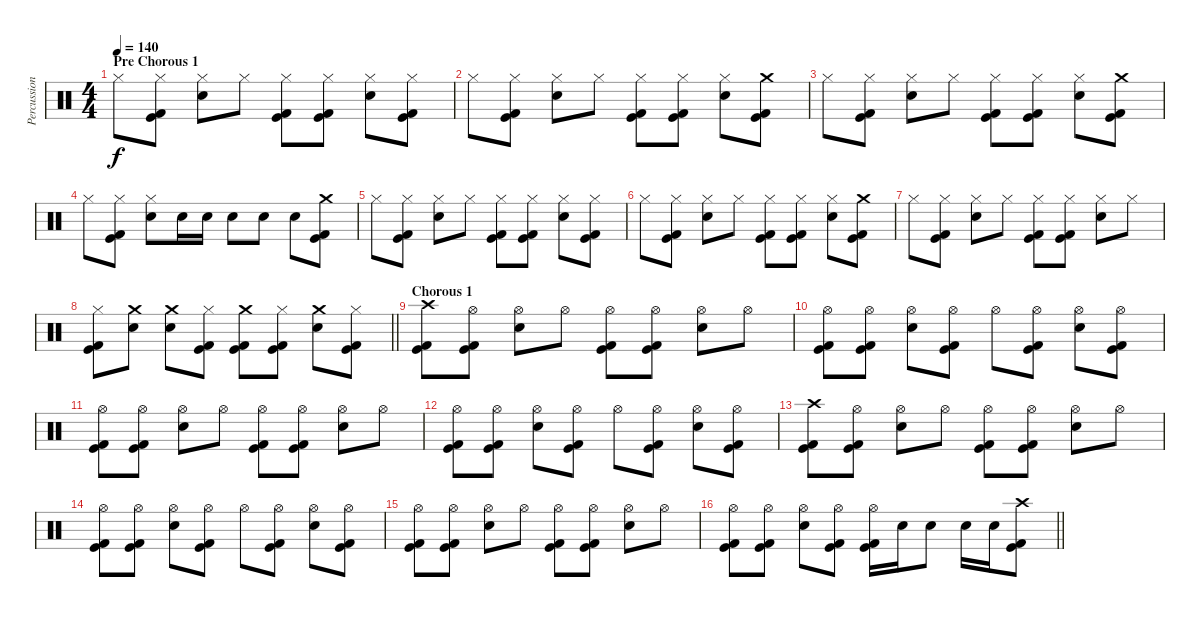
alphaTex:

\track ("Percussion" "Percussion") {instrument percussion}
\staff {score}
\articulation defaults
\ts (4 4)
\section ("" "Pre Chorous 1")
\tempo 140
\clef neutral
\ks c "Hi-Hat (closed)".8{dy f}
("Hi-Hat (closed)" "Kick (hit)" "Kick (hit) 2").8 ("Hi-Hat (closed)" "Electric Snare (hit)").8 "Hi-Hat (closed)".8 ("Hi-Hat (closed)" "Kick (hit)" "Kick (hit) 2").8 ("Hi-Hat (closed)" "Kick (hit)" "Kick (hit) 2").8 ("Hi-Hat (closed)" "Electric Snare (hit)").8 ("Hi-Hat (closed)" "Kick (hit)" "Kick (hit) 2").8 |
"Hi-Hat (closed)".8 ("Hi-Hat (closed)" "Kick (hit)" "Kick (hit) 2").8 ("Hi-Hat (closed)" "Electric Snare (hit)").8 "Hi-Hat (closed)".8 ("Hi-Hat (closed)" "Kick (hit)" "Kick (hit) 2").8 ("Hi-Hat (closed)" "Kick (hit)" "Kick (hit) 2").8 ("Hi-Hat (closed)" "Electric Snare (hit)").8 ("Crash medium (hit)" "Kick (hit)" "Kick (hit) 2").8 |
"Hi-Hat (closed)".8 ("Hi-Hat (closed)" "Kick (hit)" "Kick (hit) 2").8 ("Hi-Hat (closed)" "Electric Snare (hit)").8 "Hi-Hat (closed)".8 ("Hi-Hat (closed)" "Kick (hit)" "Kick (hit) 2").8 ("Hi-Hat (closed)" "Kick (hit)" "Kick (hit) 2").8 ("Hi-Hat (closed)" "Electric Snare (hit)").8 ("Crash medium (hit)" "Kick (hit)" "Kick (hit) 2").8 |
"Hi-Hat (closed)".8 ("Hi-Hat (closed)" "Kick (hit)" "Kick (hit) 2").8 ("Hi-Hat (closed)" "Electric Snare (hit)").8 "Electric Snare (hit)".16 "Electric Snare (hit)".16 "Electric Snare (hit)".8 "Electric Snare (hit)".8 "Electric Snare (hit)".8 ("Crash medium (hit)" "Kick (hit)" "Kick (hit) 2").8 |
"Hi-Hat (closed)".8 ("Hi-Hat (closed)" "Kick (hit)" "Kick (hit) 2").8 ("Hi-Hat (closed)" "Electric Snare (hit)").8 "Hi-Hat (closed)".8 ("Hi-Hat (closed)" "Kick (hit)" "Kick (hit) 2").8 ("Hi-Hat (closed)" "Kick (hit)" "Kick (hit) 2").8 ("Hi-Hat (closed)" "Electric Snare (hit)").8 ("Hi-Hat (closed)" "Kick (hit)" "Kick (hit) 2").8 |
"Hi-Hat (closed)".8 ("Hi-Hat (closed)" "Kick (hit)" "Kick (hit) 2").8 ("Hi-Hat (closed)" "Electric Snare (hit)").8 "Hi-Hat (closed)".8 ("Hi-Hat (closed)" "Kick (hit)" "Kick (hit) 2").8 ("Hi-Hat (closed)" "Kick (hit)" "Kick (hit) 2").8 ("Hi-Hat (closed)" "Electric Snare (hit)").8 ("Crash medium (hit)" "Kick (hit)" "Kick (hit) 2").8 |
"Hi-Hat (closed)".8 ("Hi-Hat (closed)" "Kick (hit)" "Kick (hit) 2").8 ("Hi-Hat (closed)" "Electric Snare (hit)").8 "Hi-Hat (closed)".8 ("Hi-Hat (closed)" "Kick (hit)" "Kick (hit) 2").8 ("Hi-Hat (closed)" "Kick (hit)" "Kick (hit) 2").8 ("Hi-Hat (closed)" "Electric Snare (hit)").8 "Hi-Hat (closed)".8 |
\barLineRight lightlight
("Hi-Hat (closed)" "Kick (hit)" "Kick (hit) 2").8 ("Crash medium (hit)" "Electric Snare (hit)").8 ("Crash medium (hit)" "Electric Snare (hit)").8 ("Hi-Hat (closed)" "Kick (hit)" "Kick (hit) 2").8 ("Crash medium (hit)" "Kick (hit)" "Kick (hit) 2").8 ("Hi-Hat (closed)" "Kick (hit)" "Kick (hit) 2").8 ("Crash medium (hit)" "Electric Snare (hit)").8 ("Hi-Hat (closed)" "Kick (hit)" "Kick (hit) 2").8 |
\section ("" "Chorous 1")
("Crash high (hit)" "Kick (hit)" "Kick (hit) 2").8 ("Hi-Hat (open)" "Kick (hit)" "Kick (hit) 2").8 ("Hi-Hat (open)" "Electric Snare (hit)").8 "Hi-Hat (open)".8 ("Hi-Hat (open)" "Kick (hit)" "Kick (hit) 2").8 ("Hi-Hat (open)" "Kick (hit)" "Kick (hit) 2").8 ("Hi-Hat (open)" "Electric Snare (hit)").8 "Hi-Hat (open)".8 |
("Hi-Hat (open)" "Kick (hit)" "Kick (hit) 2").8 ("Hi-Hat (open)" "Kick (hit)" "Kick (hit) 2").8 ("Hi-Hat (open)" "Electric Snare (hit)").8 ("Hi-Hat (open)" "Kick (hit)" "Kick (hit) 2").8 "Hi-Hat (open)".8 ("Hi-Hat (open)" "Kick (hit)" "Kick (hit) 2").8 ("Hi-Hat (open)" "Electric Snare (hit)").8 ("Hi-Hat (open)" "Kick (hit)" "Kick (hit) 2").8 |
("Hi-Hat (open)" "Kick (hit)" "Kick (hit) 2").8 ("Hi-Hat (open)" "Kick (hit)" "Kick (hit) 2").8 ("Hi-Hat (open)" "Electric Snare (hit)").8 "Hi-Hat (open)".8 ("Hi-Hat (open)" "Kick (hit)" "Kick (hit) 2").8 ("Hi-Hat (open)" "Kick (hit)" "Kick (hit) 2").8 ("Hi-Hat (open)" "Electric Snare (hit)").8 "Hi-Hat (open)".8 |
("Hi-Hat (open)" "Kick (hit)" "Kick (hit) 2").8 ("Hi-Hat (open)" "Kick (hit)" "Kick (hit) 2").8 ("Hi-Hat (open)" "Electric Snare (hit)").8 ("Hi-Hat (open)" "Kick (hit)" "Kick (hit) 2").8 "Hi-Hat (open)".8 ("Hi-Hat (open)" "Kick (hit)" "Kick (hit) 2").8 ("Hi-Hat (open)" "Electric Snare (hit)").8 ("Hi-Hat (open)" "Kick (hit)" "Kick (hit) 2").8 |
("Crash high (hit)" "Kick (hit)" "Kick (hit) 2").8 ("Hi-Hat (open)" "Kick (hit)" "Kick (hit) 2").8 ("Hi-Hat (open)" "Electric Snare (hit)").8 "Hi-Hat (open)".8 ("Hi-Hat (open)" "Kick (hit)" "Kick (hit) 2").8 ("Hi-Hat (open)" "Kick (hit)" "Kick (hit) 2").8 ("Hi-Hat (open)" "Electric Snare (hit)").8 "Hi-Hat (open)".8 |
("Hi-Hat (open)" "Kick (hit)" "Kick (hit) 2").8 ("Hi-Hat (open)" "Kick (hit)" "Kick (hit) 2").8 ("Hi-Hat (open)" "Electric Snare (hit)").8 ("Hi-Hat (open)" "Kick (hit)" "Kick (hit) 2").8 "Hi-Hat (open)".8 ("Hi-Hat (open)" "Kick (hit)" "Kick (hit) 2").8 ("Hi-Hat (open)" "Electric Snare (hit)").8 ("Hi-Hat (open)" "Kick (hit)" "Kick (hit) 2").8 |
("Hi-Hat (open)" "Kick (hit)" "Kick (hit) 2").8 ("Hi-Hat (open)" "Kick (hit)" "Kick (hit) 2").8 ("Hi-Hat (open)" "Electric Snare (hit)").8 "Hi-Hat (open)".8 ("Hi-Hat (open)" "Kick (hit)" "Kick (hit) 2").8 ("Hi-Hat (open)" "Kick (hit)" "Kick (hit) 2").8 ("Hi-Hat (open)" "Electric Snare (hit)").8 "Hi-Hat (open)".8 |
\barLineRight lightlight
("Hi-Hat (open)" "Kick (hit)" "Kick (hit) 2").8 ("Hi-Hat (open)" "Kick (hit)" "Kick (hit) 2").8 ("Hi-Hat (open)" "Electric Snare (hit)").8 ("Hi-Hat (open)" "Kick (hit)" "Kick (hit) 2").8 ("Hi-Hat (open)" "Kick (hit)" "Kick (hit) 2").16 "Electric Snare (hit)".16 "Electric Snare (hit)".8 "Electric Snare (hit)".16 "Electric Snare (hit)".16 ("Crash high (hit)" "Kick (hit)" "Kick (hit) 2").8
